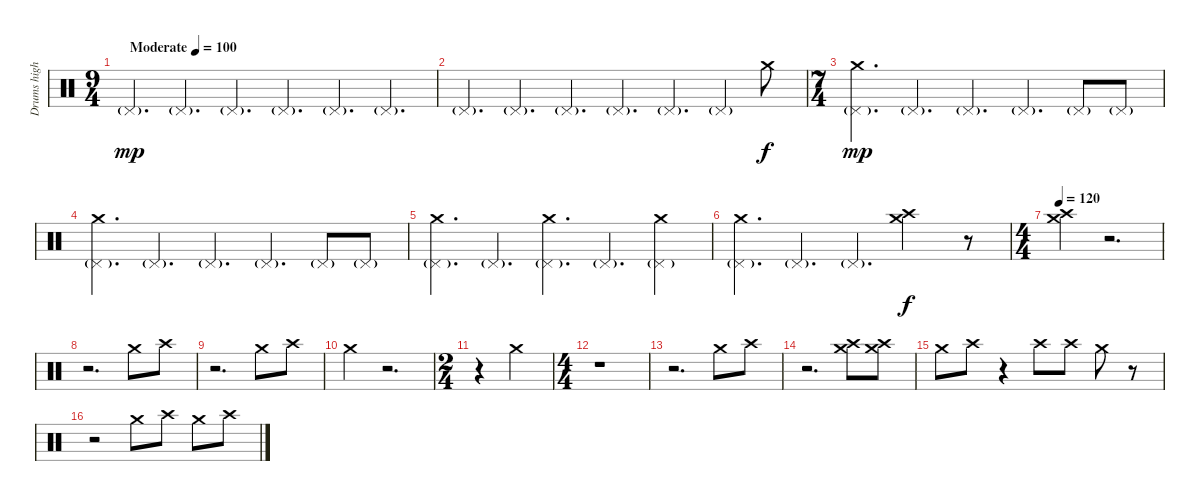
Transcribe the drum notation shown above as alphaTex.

\track ("Drums high" "Drums high") {instrument percussion}
\staff {score}
\articulation defaults
\ts (9 4)
\tempo (100 "Moderate")
\clef neutral
\ks c "Pedal Hi-Hat (hit)"{g}.4{d dy mp} "Pedal Hi-Hat (hit)"{g}.4{d} "Pedal Hi-Hat (hit)"{g}.4{d} "Pedal Hi-Hat (hit)"{g}.4{d} "Pedal Hi-Hat (hit)"{g}.4{d} "Pedal Hi-Hat (hit)"{g}.4{d}
|
"Pedal Hi-Hat (hit)"{g}.4{d} "Pedal Hi-Hat (hit)"{g}.4{d} "Pedal Hi-Hat (hit)"{g}.4{d} "Pedal Hi-Hat (hit)"{g}.4{d} "Pedal Hi-Hat (hit)"{g}.4{d} "Pedal Hi-Hat (hit)"{g}.4 "Crash medium (hit)".8{dy f} |
\ts (7 4)
("Pedal Hi-Hat (hit)"{g} "Crash medium (hit)").4{d dy mp} "Pedal Hi-Hat (hit)"{g}.4{d} "Pedal Hi-Hat (hit)"{g}.4{d} "Pedal Hi-Hat (hit)"{g}.4{d} "Pedal Hi-Hat (hit)"{g}.8 "Pedal Hi-Hat (hit)"{g}.8 |
("Pedal Hi-Hat (hit)"{g} "Crash medium (hit)").4{d} "Pedal Hi-Hat (hit)"{g}.4{d} "Pedal Hi-Hat (hit)"{g}.4{d} "Pedal Hi-Hat (hit)"{g}.4{d} "Pedal Hi-Hat (hit)"{g}.8 "Pedal Hi-Hat (hit)"{g}.8 |
("Pedal Hi-Hat (hit)"{g} "Crash medium (hit)").4{d} "Pedal Hi-Hat (hit)"{g}.4{d} ("Pedal Hi-Hat (hit)"{g} "Crash medium (hit)").4{d} "Pedal Hi-Hat (hit)"{g}.4{d} ("Pedal Hi-Hat (hit)"{g} "Crash medium (hit)").4 |
("Pedal Hi-Hat (hit)"{g} "Crash medium (hit)").4{d} "Pedal Hi-Hat (hit)"{g}.4{d} "Pedal Hi-Hat (hit)"{g}.4{d} ("Crash medium (hit)" "Crash high (hit)").2{dy f} r.8 |
\ts (4 4)
\tempo 120
("Crash medium (hit)" "Crash high (hit)").4 r.2{d} |
r.2{d} "Crash medium (hit)".8 "Crash high (hit)".8 |
r.2{d} "Crash medium (hit)".8 "Crash high (hit)".8 |
"Crash medium (hit)".4 r.2{d} |
\ts (2 4)
r.4 "Crash medium (hit)".4 |
\ts (4 4)
r.1 |
r.2{d} "Crash medium (hit)".8 "Crash high (hit)".8 |
r.2{d} ("Crash medium (hit)" "Crash high (hit)").8 ("Crash high (hit)" "Crash medium (hit)").8 |
"Crash medium (hit)".8 "Crash high (hit)".8 r.4 "Crash high (hit)".8 "Crash high (hit)".8 "Crash medium (hit)".8 r.8 |
r.2 "Crash medium (hit)".8 "Crash high (hit)".8 "Crash medium (hit)".8 "Crash high (hit)".8
